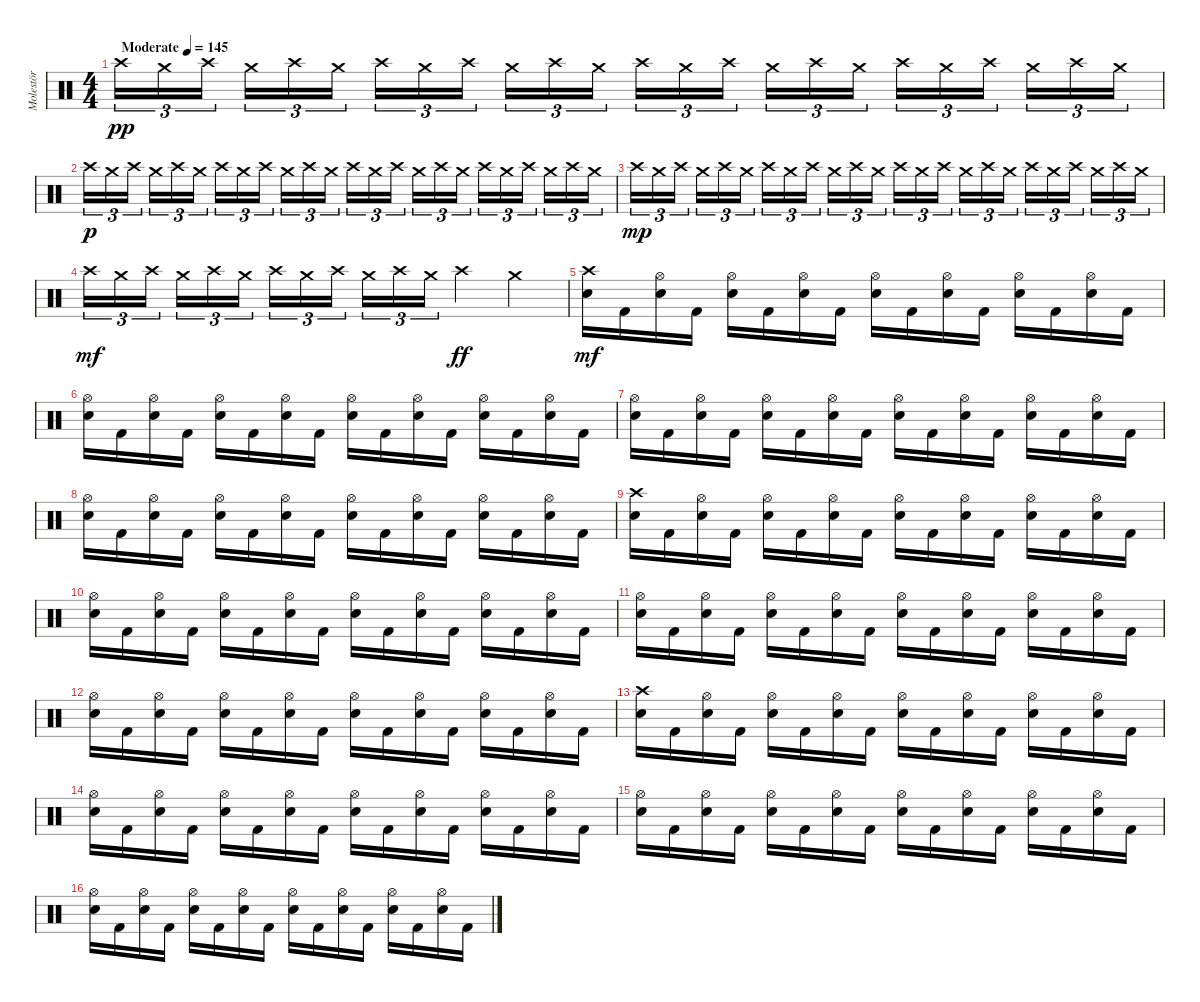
\track ("Molestör" "Molestör") {instrument percussion}
\staff {score}
\articulation defaults
\ts (4 4)
\tempo (145 "Moderate")
\clef neutral
\ks c "Crash high (hit)".16{tu (3 2) dy pp} "Crash medium (hit)".16{tu (3 2)} "Crash high (hit)".16{tu (3 2) beam splitsecondary} "Crash medium (hit)".16{tu (3 2)} "Crash high (hit)".16{tu (3 2)} "Crash medium (hit)".16{tu (3 2)} "Crash high (hit)".16{tu (3 2)} "Crash medium (hit)".16{tu (3 2)} "Crash high (hit)".16{tu (3 2) beam splitsecondary} "Crash medium (hit)".16{tu (3 2)} "Crash high (hit)".16{tu (3 2)} "Crash medium (hit)".16{tu (3 2)} "Crash high (hit)".16{tu (3 2)} "Crash medium (hit)".16{tu (3 2)} "Crash high (hit)".16{tu (3 2) beam splitsecondary} "Crash medium (hit)".16{tu (3 2)} "Crash high (hit)".16{tu (3 2)} "Crash medium (hit)".16{tu (3 2)} "Crash high (hit)".16{tu (3 2)} "Crash medium (hit)".16{tu (3 2)} "Crash high (hit)".16{tu (3 2) beam splitsecondary} "Crash medium (hit)".16{tu (3 2)} "Crash high (hit)".16{tu (3 2)} "Crash medium (hit)".16{tu (3 2)}
|
"Crash high (hit)".16{tu (3 2) dy p} "Crash medium (hit)".16{tu (3 2)} "Crash high (hit)".16{tu (3 2) beam splitsecondary} "Crash medium (hit)".16{tu (3 2)} "Crash high (hit)".16{tu (3 2)} "Crash medium (hit)".16{tu (3 2)} "Crash high (hit)".16{tu (3 2)} "Crash medium (hit)".16{tu (3 2)} "Crash high (hit)".16{tu (3 2) beam splitsecondary} "Crash medium (hit)".16{tu (3 2)} "Crash high (hit)".16{tu (3 2)} "Crash medium (hit)".16{tu (3 2)} "Crash high (hit)".16{tu (3 2)} "Crash medium (hit)".16{tu (3 2)} "Crash high (hit)".16{tu (3 2) beam splitsecondary} "Crash medium (hit)".16{tu (3 2)} "Crash high (hit)".16{tu (3 2)} "Crash medium (hit)".16{tu (3 2)} "Crash high (hit)".16{tu (3 2)} "Crash medium (hit)".16{tu (3 2)} "Crash high (hit)".16{tu (3 2) beam splitsecondary} "Crash medium (hit)".16{tu (3 2)} "Crash high (hit)".16{tu (3 2)} "Crash medium (hit)".16{tu (3 2)} |
"Crash high (hit)".16{tu (3 2) dy mp} "Crash medium (hit)".16{tu (3 2)} "Crash high (hit)".16{tu (3 2) beam splitsecondary} "Crash medium (hit)".16{tu (3 2)} "Crash high (hit)".16{tu (3 2)} "Crash medium (hit)".16{tu (3 2)} "Crash high (hit)".16{tu (3 2)} "Crash medium (hit)".16{tu (3 2)} "Crash high (hit)".16{tu (3 2) beam splitsecondary} "Crash medium (hit)".16{tu (3 2)} "Crash high (hit)".16{tu (3 2)} "Crash medium (hit)".16{tu (3 2)} "Crash high (hit)".16{tu (3 2)} "Crash medium (hit)".16{tu (3 2)} "Crash high (hit)".16{tu (3 2) beam splitsecondary} "Crash medium (hit)".16{tu (3 2)} "Crash high (hit)".16{tu (3 2)} "Crash medium (hit)".16{tu (3 2)} "Crash high (hit)".16{tu (3 2)} "Crash medium (hit)".16{tu (3 2)} "Crash high (hit)".16{tu (3 2) beam splitsecondary} "Crash medium (hit)".16{tu (3 2)} "Crash high (hit)".16{tu (3 2)} "Crash medium (hit)".16{tu (3 2)} |
"Crash high (hit)".16{tu (3 2) dy mf} "Crash medium (hit)".16{tu (3 2)} "Crash high (hit)".16{tu (3 2) beam splitsecondary} "Crash medium (hit)".16{tu (3 2)} "Crash high (hit)".16{tu (3 2)} "Crash medium (hit)".16{tu (3 2)} "Crash high (hit)".16{tu (3 2)} "Crash medium (hit)".16{tu (3 2)} "Crash high (hit)".16{tu (3 2) beam splitsecondary} "Crash medium (hit)".16{tu (3 2)} "Crash high (hit)".16{tu (3 2)} "Crash medium (hit)".16{tu (3 2)} "Crash high (hit)".4{dy ff} "Crash medium (hit)".4 |
("Crash high (hit)" "Electric Snare (hit)").16{dy mf} "Kick (hit) 2".16 ("Hi-Hat (open)" "Electric Snare (hit)").16 "Kick (hit) 2".16 ("Hi-Hat (open)" "Electric Snare (hit)").16 "Kick (hit) 2".16 ("Hi-Hat (open)" "Electric Snare (hit)").16 "Kick (hit) 2".16 ("Hi-Hat (open)" "Electric Snare (hit)").16 "Kick (hit) 2".16 ("Hi-Hat (open)" "Electric Snare (hit)").16 "Kick (hit) 2".16 ("Hi-Hat (open)" "Electric Snare (hit)").16 "Kick (hit) 2".16 ("Hi-Hat (open)" "Electric Snare (hit)").16 "Kick (hit) 2".16 |
("Hi-Hat (open)" "Electric Snare (hit)").16 "Kick (hit) 2".16 ("Hi-Hat (open)" "Electric Snare (hit)").16 "Kick (hit) 2".16 ("Hi-Hat (open)" "Electric Snare (hit)").16 "Kick (hit) 2".16 ("Hi-Hat (open)" "Electric Snare (hit)").16 "Kick (hit) 2".16 ("Hi-Hat (open)" "Electric Snare (hit)").16 "Kick (hit) 2".16 ("Hi-Hat (open)" "Electric Snare (hit)").16 "Kick (hit) 2".16 ("Hi-Hat (open)" "Electric Snare (hit)").16 "Kick (hit) 2".16 ("Hi-Hat (open)" "Electric Snare (hit)").16 "Kick (hit) 2".16 |
("Hi-Hat (open)" "Electric Snare (hit)").16 "Kick (hit) 2".16 ("Hi-Hat (open)" "Electric Snare (hit)").16 "Kick (hit) 2".16 ("Hi-Hat (open)" "Electric Snare (hit)").16 "Kick (hit) 2".16 ("Hi-Hat (open)" "Electric Snare (hit)").16 "Kick (hit) 2".16 ("Hi-Hat (open)" "Electric Snare (hit)").16 "Kick (hit) 2".16 ("Hi-Hat (open)" "Electric Snare (hit)").16 "Kick (hit) 2".16 ("Hi-Hat (open)" "Electric Snare (hit)").16 "Kick (hit) 2".16 ("Hi-Hat (open)" "Electric Snare (hit)").16 "Kick (hit) 2".16 |
("Hi-Hat (open)" "Electric Snare (hit)").16 "Kick (hit) 2".16 ("Hi-Hat (open)" "Electric Snare (hit)").16 "Kick (hit) 2".16 ("Hi-Hat (open)" "Electric Snare (hit)").16 "Kick (hit) 2".16 ("Hi-Hat (open)" "Electric Snare (hit)").16 "Kick (hit) 2".16 ("Hi-Hat (open)" "Electric Snare (hit)").16 "Kick (hit) 2".16 ("Hi-Hat (open)" "Electric Snare (hit)").16 "Kick (hit) 2".16 ("Hi-Hat (open)" "Electric Snare (hit)").16 "Kick (hit) 2".16 ("Hi-Hat (open)" "Electric Snare (hit)").16 "Kick (hit) 2".16 |
("Crash high (hit)" "Electric Snare (hit)").16 "Kick (hit) 2".16 ("Hi-Hat (open)" "Electric Snare (hit)").16 "Kick (hit) 2".16 ("Hi-Hat (open)" "Electric Snare (hit)").16 "Kick (hit) 2".16 ("Hi-Hat (open)" "Electric Snare (hit)").16 "Kick (hit) 2".16 ("Hi-Hat (open)" "Electric Snare (hit)").16 "Kick (hit) 2".16 ("Hi-Hat (open)" "Electric Snare (hit)").16 "Kick (hit) 2".16 ("Hi-Hat (open)" "Electric Snare (hit)").16 "Kick (hit) 2".16 ("Hi-Hat (open)" "Electric Snare (hit)").16 "Kick (hit) 2".16 |
("Hi-Hat (open)" "Electric Snare (hit)").16 "Kick (hit) 2".16 ("Hi-Hat (open)" "Electric Snare (hit)").16 "Kick (hit) 2".16 ("Hi-Hat (open)" "Electric Snare (hit)").16 "Kick (hit) 2".16 ("Hi-Hat (open)" "Electric Snare (hit)").16 "Kick (hit) 2".16 ("Hi-Hat (open)" "Electric Snare (hit)").16 "Kick (hit) 2".16 ("Hi-Hat (open)" "Electric Snare (hit)").16 "Kick (hit) 2".16 ("Hi-Hat (open)" "Electric Snare (hit)").16 "Kick (hit) 2".16 ("Hi-Hat (open)" "Electric Snare (hit)").16 "Kick (hit) 2".16 |
("Hi-Hat (open)" "Electric Snare (hit)").16 "Kick (hit) 2".16 ("Hi-Hat (open)" "Electric Snare (hit)").16 "Kick (hit) 2".16 ("Hi-Hat (open)" "Electric Snare (hit)").16 "Kick (hit) 2".16 ("Hi-Hat (open)" "Electric Snare (hit)").16 "Kick (hit) 2".16 ("Hi-Hat (open)" "Electric Snare (hit)").16 "Kick (hit) 2".16 ("Hi-Hat (open)" "Electric Snare (hit)").16 "Kick (hit) 2".16 ("Hi-Hat (open)" "Electric Snare (hit)").16 "Kick (hit) 2".16 ("Hi-Hat (open)" "Electric Snare (hit)").16 "Kick (hit) 2".16 |
("Hi-Hat (open)" "Electric Snare (hit)").16 "Kick (hit) 2".16 ("Hi-Hat (open)" "Electric Snare (hit)").16 "Kick (hit) 2".16 ("Hi-Hat (open)" "Electric Snare (hit)").16 "Kick (hit) 2".16 ("Hi-Hat (open)" "Electric Snare (hit)").16 "Kick (hit) 2".16 ("Hi-Hat (open)" "Electric Snare (hit)").16 "Kick (hit) 2".16 ("Hi-Hat (open)" "Electric Snare (hit)").16 "Kick (hit) 2".16 ("Hi-Hat (open)" "Electric Snare (hit)").16 "Kick (hit) 2".16 ("Hi-Hat (open)" "Electric Snare (hit)").16 "Kick (hit) 2".16 |
("Crash high (hit)" "Electric Snare (hit)").16 "Kick (hit) 2".16 ("Hi-Hat (open)" "Electric Snare (hit)").16 "Kick (hit) 2".16 ("Hi-Hat (open)" "Electric Snare (hit)").16 "Kick (hit) 2".16 ("Hi-Hat (open)" "Electric Snare (hit)").16 "Kick (hit) 2".16 ("Hi-Hat (open)" "Electric Snare (hit)").16 "Kick (hit) 2".16 ("Hi-Hat (open)" "Electric Snare (hit)").16 "Kick (hit) 2".16 ("Hi-Hat (open)" "Electric Snare (hit)").16 "Kick (hit) 2".16 ("Hi-Hat (open)" "Electric Snare (hit)").16 "Kick (hit) 2".16 |
("Hi-Hat (open)" "Electric Snare (hit)").16 "Kick (hit) 2".16 ("Hi-Hat (open)" "Electric Snare (hit)").16 "Kick (hit) 2".16 ("Hi-Hat (open)" "Electric Snare (hit)").16 "Kick (hit) 2".16 ("Hi-Hat (open)" "Electric Snare (hit)").16 "Kick (hit) 2".16 ("Hi-Hat (open)" "Electric Snare (hit)").16 "Kick (hit) 2".16 ("Hi-Hat (open)" "Electric Snare (hit)").16 "Kick (hit) 2".16 ("Hi-Hat (open)" "Electric Snare (hit)").16 "Kick (hit) 2".16 ("Hi-Hat (open)" "Electric Snare (hit)").16 "Kick (hit) 2".16 |
("Hi-Hat (open)" "Electric Snare (hit)").16 "Kick (hit) 2".16 ("Hi-Hat (open)" "Electric Snare (hit)").16 "Kick (hit) 2".16 ("Hi-Hat (open)" "Electric Snare (hit)").16 "Kick (hit) 2".16 ("Hi-Hat (open)" "Electric Snare (hit)").16 "Kick (hit) 2".16 ("Hi-Hat (open)" "Electric Snare (hit)").16 "Kick (hit) 2".16 ("Hi-Hat (open)" "Electric Snare (hit)").16 "Kick (hit) 2".16 ("Hi-Hat (open)" "Electric Snare (hit)").16 "Kick (hit) 2".16 ("Hi-Hat (open)" "Electric Snare (hit)").16 "Kick (hit) 2".16 |
("Hi-Hat (open)" "Electric Snare (hit)").16 "Kick (hit) 2".16 ("Hi-Hat (open)" "Electric Snare (hit)").16 "Kick (hit) 2".16 ("Hi-Hat (open)" "Electric Snare (hit)").16 "Kick (hit) 2".16 ("Hi-Hat (open)" "Electric Snare (hit)").16 "Kick (hit) 2".16 ("Hi-Hat (open)" "Electric Snare (hit)").16 "Kick (hit) 2".16 ("Hi-Hat (open)" "Electric Snare (hit)").16 "Kick (hit) 2".16 ("Hi-Hat (open)" "Electric Snare (hit)").16 "Kick (hit) 2".16 ("Hi-Hat (open)" "Electric Snare (hit)").16 "Kick (hit) 2".16
